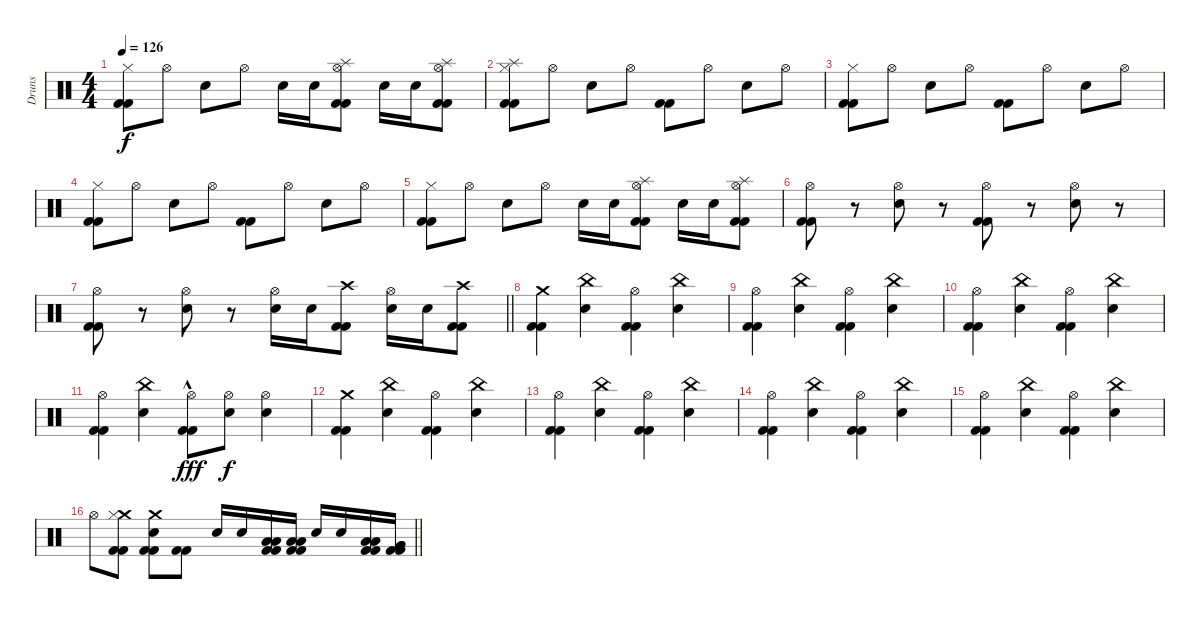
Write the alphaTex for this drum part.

\track ("Druns" "Druns") {instrument percussion}
\staff {score}
\articulation defaults
\ts (4 4)
\tempo 126
\clef neutral
\ks c
("Hi-Hat (closed)" "Kick (hit) 2" "Kick (hit) 2").8{dy f} "Hi-Hat (open)".8 "Electric Snare (hit)".8 "Hi-Hat (open)".8 "Electric Snare (hit)".16 "Electric Snare (hit)".16 ("Splash (hit)" "Hi-Hat (open)" "Kick (hit) 2" "Kick (hit) 2").8 "Electric Snare (hit)".16 "Electric Snare (hit)".16 ("Splash (hit)" "Hi-Hat (open)" "Kick (hit) 2" "Kick (hit) 2").8 |
("Splash (hit)" "Hi-Hat (closed)" "Kick (hit) 2" "Kick (hit) 2").8 "Hi-Hat (open)".8 "Electric Snare (hit)".8 "Hi-Hat (open)".8 ("Kick (hit) 2" "Kick (hit) 2").8 "Hi-Hat (open)".8 "Electric Snare (hit)".8 "Hi-Hat (open)".8 |
("Hi-Hat (closed)" "Kick (hit) 2" "Kick (hit) 2").8 "Hi-Hat (open)".8 "Electric Snare (hit)".8 "Hi-Hat (open)".8 ("Kick (hit) 2" "Kick (hit) 2").8 "Hi-Hat (open)".8 "Electric Snare (hit)".8 "Hi-Hat (open)".8 |
("Hi-Hat (closed)" "Kick (hit) 2" "Kick (hit) 2").8 "Hi-Hat (open)".8 "Electric Snare (hit)".8 "Hi-Hat (open)".8 ("Kick (hit) 2" "Kick (hit) 2").8 "Hi-Hat (open)".8 "Electric Snare (hit)".8 "Hi-Hat (open)".8 |
("Hi-Hat (closed)" "Kick (hit) 2" "Kick (hit) 2").8 "Hi-Hat (open)".8 "Electric Snare (hit)".8 "Hi-Hat (open)".8 "Electric Snare (hit)".16 "Electric Snare (hit)".16 ("Splash (hit)" "Hi-Hat (open)" "Kick (hit) 2" "Kick (hit) 2").8 "Electric Snare (hit)".16 "Electric Snare (hit)".16 ("Splash (hit)" "Hi-Hat (open)" "Kick (hit) 2" "Kick (hit) 2").8 |
("Hi-Hat (open)" "Kick (hit) 2" "Kick (hit) 2").8 r.8 ("Hi-Hat (open)" "Electric Snare (hit)").8 r.8 ("Hi-Hat (open)" "Kick (hit) 2" "Kick (hit) 2").8 r.8 ("Hi-Hat (open)" "Electric Snare (hit)").8 r.8 |
\barLineRight lightlight
("Hi-Hat (open)" "Kick (hit) 2" "Kick (hit) 2").8 r.8 ("Hi-Hat (open)" "Electric Snare (hit)").8 r.8 ("Hi-Hat (open)" "Electric Snare (hit)").16 "Electric Snare (hit)".16 ("Crash high (hit)" "Kick (hit) 2" "Kick (hit) 2").8 ("Hi-Hat (open)" "Electric Snare (hit)").16 "Electric Snare (hit)".16 ("Crash high (hit)" "Kick (hit) 2" "Kick (hit) 2").8 |
\section ("" "")
("Crash medium (hit)" "Kick (hit) 2" "Kick (hit) 2").4 ("China (hit)" "Electric Snare (hit)").4 ("Hi-Hat (open)" "Kick (hit) 2" "Kick (hit) 2").4 ("China (hit)" "Electric Snare (hit)").4 |
("Hi-Hat (open)" "Kick (hit) 2" "Kick (hit) 2").4 ("China (hit)" "Electric Snare (hit)").4 ("Hi-Hat (open)" "Kick (hit) 2" "Kick (hit) 2").4 ("China (hit)" "Electric Snare (hit)").4 |
("Hi-Hat (open)" "Kick (hit) 2" "Kick (hit) 2").4 ("China (hit)" "Electric Snare (hit)").4 ("Hi-Hat (open)" "Kick (hit) 2" "Kick (hit) 2").4 ("China (hit)" "Electric Snare (hit)").4 |
("Hi-Hat (open)" "Kick (hit) 2" "Kick (hit) 2").4 ("China (hit)" "Electric Snare (hit)").4 ("Hi-Hat (open)"{hac} "Kick (hit) 2" "Kick (hit) 2").8{dy fff} ("Hi-Hat (open)" "Electric Snare (hit)").8{dy f} ("Hi-Hat (open)" "Electric Snare (hit)").4 |
("Crash medium (hit)" "Kick (hit) 2" "Kick (hit) 2").4 ("China (hit)" "Electric Snare (hit)").4 ("Hi-Hat (open)" "Kick (hit) 2" "Kick (hit) 2").4 ("China (hit)" "Electric Snare (hit)").4 |
("Hi-Hat (open)" "Kick (hit) 2" "Kick (hit) 2").4 ("China (hit)" "Electric Snare (hit)").4 ("Hi-Hat (open)" "Kick (hit) 2" "Kick (hit) 2").4 ("China (hit)" "Electric Snare (hit)").4 |
("Hi-Hat (open)" "Kick (hit) 2" "Kick (hit) 2").4 ("China (hit)" "Electric Snare (hit)").4 ("Hi-Hat (open)" "Kick (hit) 2" "Kick (hit) 2").4 ("China (hit)" "Electric Snare (hit)").4 |
("Hi-Hat (open)" "Kick (hit) 2" "Kick (hit) 2").4 ("China (hit)" "Electric Snare (hit)").4 ("Hi-Hat (open)" "Kick (hit) 2" "Kick (hit) 2").4 ("China (hit)" "Electric Snare (hit)").4 |
\barLineRight lightlight "Hi-Hat (open)".8
("Crash medium (hit)" "Hi-Hat (closed)" "Kick (hit) 2" "Kick (hit) 2").8 ("Crash medium (hit)" "Electric Snare (hit)" "Kick (hit) 2" "Kick (hit) 2").8 ("Kick (hit) 2" "Kick (hit) 2").8 "Electric Snare (hit)".16 "Electric Snare (hit)".16 ("Low Tom (hit)" "Low Tom (hit)" "Kick (hit) 2" "Kick (hit) 2").16 ("Low Tom (hit)" "Low Tom (hit)" "Kick (hit) 2" "Kick (hit) 2").16 "Electric Snare (hit)".16 "Electric Snare (hit)".16 ("Low Tom (hit)" "Low Tom (hit)" "Kick (hit) 2" "Kick (hit) 2").16 ("Very Low Tom (hit)" "Very Low Tom (hit)" "Kick (hit) 2" "Kick (hit) 2").16
